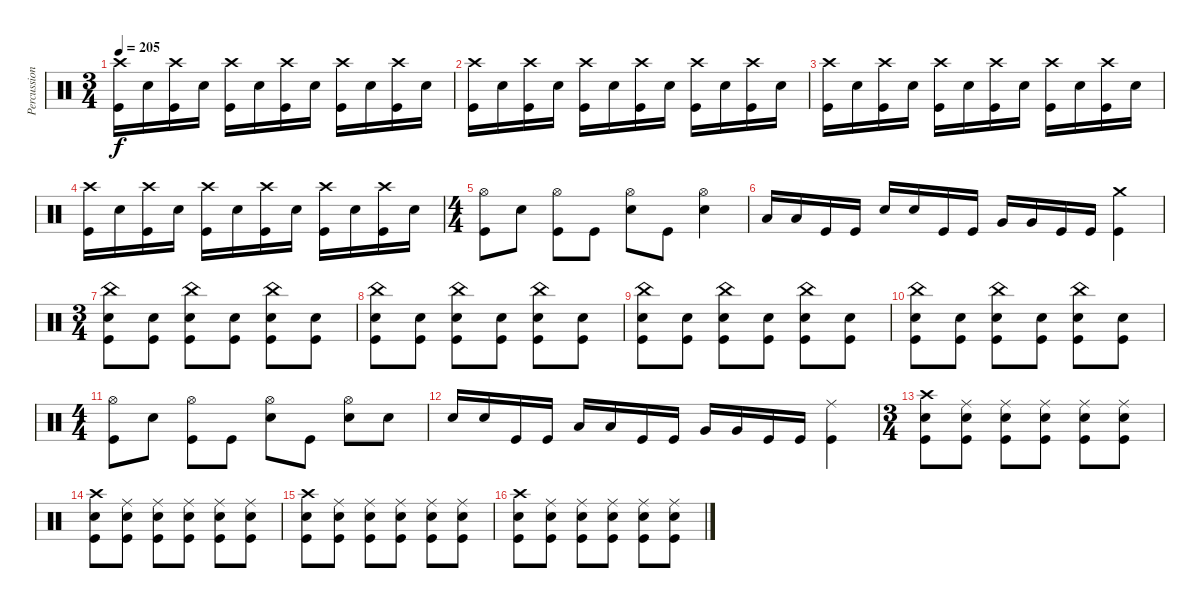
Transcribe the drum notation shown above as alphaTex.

\track ("Percussion" "Percussion") {instrument percussion}
\staff {score}
\articulation defaults
\ts (3 4)
\tempo 205
\clef neutral
\ks c
("Crash high (hit)" "Kick (hit)").16{dy f} "Electric Snare (hit)".16 ("Crash high (hit)" "Kick (hit)").16 "Electric Snare (hit)".16 ("Crash high (hit)" "Kick (hit)").16 "Electric Snare (hit)".16 ("Crash high (hit)" "Kick (hit)").16 "Electric Snare (hit)".16 ("Crash high (hit)" "Kick (hit)").16 "Electric Snare (hit)".16 ("Crash high (hit)" "Kick (hit)").16 "Electric Snare (hit)".16 |
("Crash high (hit)" "Kick (hit)").16 "Electric Snare (hit)".16 ("Crash high (hit)" "Kick (hit)").16 "Electric Snare (hit)".16 ("Crash high (hit)" "Kick (hit)").16 "Electric Snare (hit)".16 ("Crash high (hit)" "Kick (hit)").16 "Electric Snare (hit)".16 ("Crash high (hit)" "Kick (hit)").16 "Electric Snare (hit)".16 ("Crash high (hit)" "Kick (hit)").16 "Electric Snare (hit)".16 |
("Crash high (hit)" "Kick (hit)").16 "Electric Snare (hit)".16 ("Crash high (hit)" "Kick (hit)").16 "Electric Snare (hit)".16 ("Crash high (hit)" "Kick (hit)").16 "Electric Snare (hit)".16 ("Crash high (hit)" "Kick (hit)").16 "Electric Snare (hit)".16 ("Crash high (hit)" "Kick (hit)").16 "Electric Snare (hit)".16 ("Crash high (hit)" "Kick (hit)").16 "Electric Snare (hit)".16 |
("Crash high (hit)" "Kick (hit)").16 "Electric Snare (hit)".16 ("Crash high (hit)" "Kick (hit)").16 "Electric Snare (hit)".16 ("Crash high (hit)" "Kick (hit)").16 "Electric Snare (hit)".16 ("Crash high (hit)" "Kick (hit)").16 "Electric Snare (hit)".16 ("Crash high (hit)" "Kick (hit)").16 "Electric Snare (hit)".16 ("Crash high (hit)" "Kick (hit)").16 "Electric Snare (hit)".16 |
\ts (4 4)
("Hi-Hat (open)" "Kick (hit)").8 "Electric Snare (hit)".8 ("Hi-Hat (open)" "Kick (hit)").8 "Kick (hit)".8 ("Hi-Hat (open)" "Electric Snare (hit)").8 "Kick (hit)".8 ("Hi-Hat (open)" "Electric Snare (hit)").4 |
"Low Tom (hit)".16 "Low Tom (hit)".16 "Kick (hit)".16 "Kick (hit)".16 "Electric Snare (hit)".16 "Electric Snare (hit)".16 "Kick (hit)".16 "Kick (hit)".16 "Very Low Tom (hit)".16 "Very Low Tom (hit)".16 "Kick (hit)".16 "Kick (hit)".16 ("Crash medium (hit)" "Kick (hit)").4 |
\ts (3 4)
("China (hit)" "Electric Snare (hit)" "Kick (hit)").8 ("Electric Snare (hit)" "Kick (hit)").8 ("China (hit)" "Electric Snare (hit)" "Kick (hit)").8 ("Electric Snare (hit)" "Kick (hit)").8 ("China (hit)" "Electric Snare (hit)" "Kick (hit)").8 ("Electric Snare (hit)" "Kick (hit)").8 |
("China (hit)" "Electric Snare (hit)" "Kick (hit)").8 ("Electric Snare (hit)" "Kick (hit)").8 ("China (hit)" "Electric Snare (hit)" "Kick (hit)").8 ("Electric Snare (hit)" "Kick (hit)").8 ("China (hit)" "Electric Snare (hit)" "Kick (hit)").8 ("Electric Snare (hit)" "Kick (hit)").8 |
("China (hit)" "Electric Snare (hit)" "Kick (hit)").8 ("Electric Snare (hit)" "Kick (hit)").8 ("China (hit)" "Electric Snare (hit)" "Kick (hit)").8 ("Electric Snare (hit)" "Kick (hit)").8 ("China (hit)" "Electric Snare (hit)" "Kick (hit)").8 ("Electric Snare (hit)" "Kick (hit)").8 |
("China (hit)" "Electric Snare (hit)" "Kick (hit)").8 ("Electric Snare (hit)" "Kick (hit)").8 ("China (hit)" "Electric Snare (hit)" "Kick (hit)").8 ("Electric Snare (hit)" "Kick (hit)").8 ("China (hit)" "Electric Snare (hit)" "Kick (hit)").8 ("Electric Snare (hit)" "Kick (hit)").8 |
\ts (4 4)
("Hi-Hat (open)" "Kick (hit)").8 "Electric Snare (hit)".8 ("Hi-Hat (open)" "Kick (hit)").8 "Kick (hit)".8 ("Hi-Hat (open)" "Electric Snare (hit)").8 "Kick (hit)".8 ("Hi-Hat (open)" "Electric Snare (hit)").8 "Electric Snare (hit)".8 |
"Electric Snare (hit)".16 "Electric Snare (hit)".16 "Kick (hit)".16 "Kick (hit)".16 "Low Tom (hit)".16 "Low Tom (hit)".16 "Kick (hit)".16 "Kick (hit)".16 "Very Low Tom (hit)".16 "Very Low Tom (hit)".16 "Kick (hit)".16 "Kick (hit)".16 ("Ride (middle)" "Kick (hit)").4 |
\ts (3 4)
("Crash high (hit)" "Electric Snare (hit)" "Kick (hit)").8 ("Ride (middle)" "Electric Snare (hit)" "Kick (hit)").8 ("Ride (middle)" "Electric Snare (hit)" "Kick (hit)").8 ("Ride (middle)" "Electric Snare (hit)" "Kick (hit)").8 ("Ride (middle)" "Electric Snare (hit)" "Kick (hit)").8 ("Ride (middle)" "Electric Snare (hit)" "Kick (hit)").8 |
("Crash high (hit)" "Electric Snare (hit)" "Kick (hit)").8 ("Ride (middle)" "Electric Snare (hit)" "Kick (hit)").8 ("Ride (middle)" "Electric Snare (hit)" "Kick (hit)").8 ("Ride (middle)" "Electric Snare (hit)" "Kick (hit)").8 ("Ride (middle)" "Electric Snare (hit)" "Kick (hit)").8 ("Ride (middle)" "Electric Snare (hit)" "Kick (hit)").8 |
("Crash high (hit)" "Electric Snare (hit)" "Kick (hit)").8 ("Ride (middle)" "Electric Snare (hit)" "Kick (hit)").8 ("Ride (middle)" "Electric Snare (hit)" "Kick (hit)").8 ("Ride (middle)" "Electric Snare (hit)" "Kick (hit)").8 ("Ride (middle)" "Electric Snare (hit)" "Kick (hit)").8 ("Ride (middle)" "Electric Snare (hit)" "Kick (hit)").8 |
("Crash high (hit)" "Electric Snare (hit)" "Kick (hit)").8 ("Ride (middle)" "Electric Snare (hit)" "Kick (hit)").8 ("Ride (middle)" "Electric Snare (hit)" "Kick (hit)").8 ("Ride (middle)" "Electric Snare (hit)" "Kick (hit)").8 ("Ride (middle)" "Electric Snare (hit)" "Kick (hit)").8 ("Ride (middle)" "Electric Snare (hit)" "Kick (hit)").8
